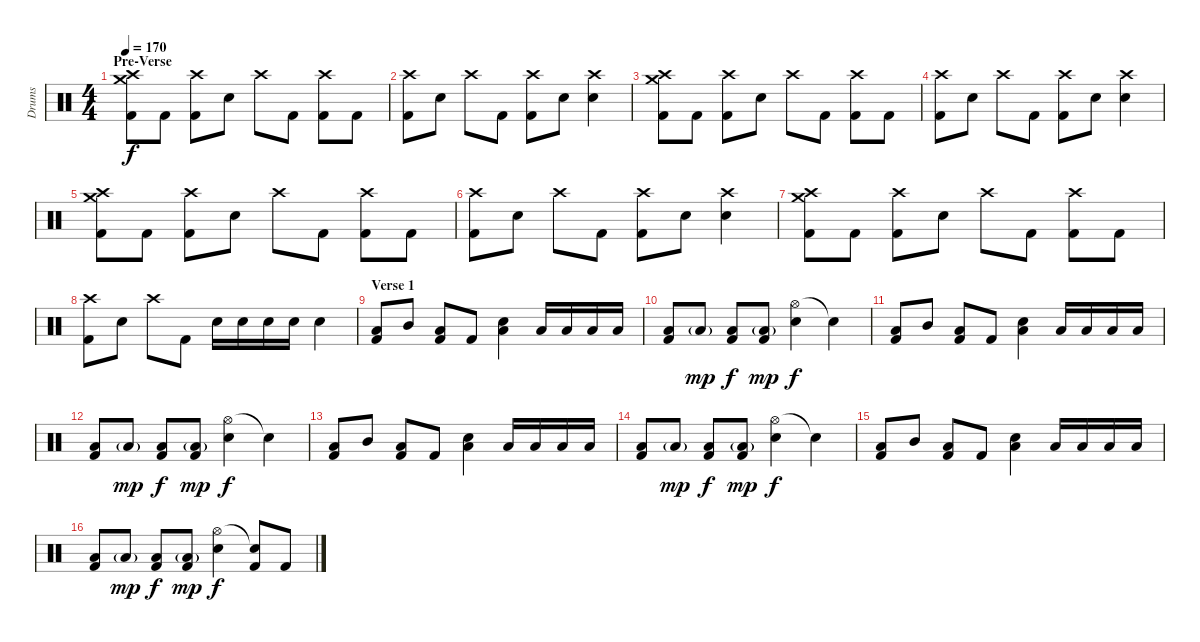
\track ("Drums" "Drums") {instrument percussion}
\staff {score}
\articulation defaults
\ts (4 4)
\section ("" "Pre-Verse")
\tempo 170
\clef neutral
\ks c
("Crash medium (hit)" "Crash high (hit)" "Kick (hit) 2").8{dy f} "Kick (hit) 2".8 ("Crash high (hit)" "Kick (hit) 2").8 "Snare (hit) 2".8 "Crash high (hit)".8 "Kick (hit) 2".8 ("Crash high (hit)" "Kick (hit) 2").8 "Kick (hit) 2".8 |
("Crash high (hit)" "Kick (hit) 2").8 "Snare (hit) 2".8 "Crash high (hit)".8 "Kick (hit) 2".8 ("Crash high (hit)" "Kick (hit) 2").8 "Snare (hit) 2".8 ("Crash high (hit)" "Snare (hit) 2").4 |
("Crash medium (hit)" "Crash high (hit)" "Kick (hit) 2").8 "Kick (hit) 2".8 ("Crash high (hit)" "Kick (hit) 2").8 "Snare (hit) 2".8 "Crash high (hit)".8 "Kick (hit) 2".8 ("Crash high (hit)" "Kick (hit) 2").8 "Kick (hit) 2".8 |
("Crash high (hit)" "Kick (hit) 2").8 "Snare (hit) 2".8 "Crash high (hit)".8 "Kick (hit) 2".8 ("Crash high (hit)" "Kick (hit) 2").8 "Snare (hit) 2".8 ("Crash high (hit)" "Snare (hit) 2").4 |
("Crash medium (hit)" "Crash high (hit)" "Kick (hit) 2").8 "Kick (hit) 2".8 ("Crash high (hit)" "Kick (hit) 2").8 "Snare (hit) 2".8 "Crash high (hit)".8 "Kick (hit) 2".8 ("Crash high (hit)" "Kick (hit) 2").8 "Kick (hit) 2".8 |
("Crash high (hit)" "Kick (hit) 2").8 "Snare (hit) 2".8 "Crash high (hit)".8 "Kick (hit) 2".8 ("Crash high (hit)" "Kick (hit) 2").8 "Snare (hit) 2".8 ("Crash high (hit)" "Snare (hit) 2").4 |
("Crash medium (hit)" "Crash high (hit)" "Kick (hit) 2").8 "Kick (hit) 2".8 ("Crash high (hit)" "Kick (hit) 2").8 "Snare (hit) 2".8 "Crash high (hit)".8 "Kick (hit) 2".8 ("Crash high (hit)" "Kick (hit) 2").8 "Kick (hit) 2".8 |
("Crash high (hit)" "Kick (hit) 2").8 "Snare (hit) 2".8 "Crash high (hit)".8 "Kick (hit) 2".8 "Snare (hit) 2".16 "Snare (hit) 2".16 "Snare (hit) 2".16 "Snare (hit) 2".16 "Snare (hit) 2".4 |
\section ("" "Verse 1")
("Low Floor Tom (hit)" "Kick (hit) 2").8 "Mid Tom (hit)".8 ("Low Floor Tom (hit)" "Kick (hit) 2").8 "Kick (hit) 2".8 ("Low Floor Tom (hit)" "Snare (hit) 2").4 "Low Floor Tom (hit)".16 "Low Floor Tom (hit)".16 "Low Floor Tom (hit)".16 "Low Floor Tom (hit)".16 |
("Low Floor Tom (hit)" "Kick (hit) 2").8 "Low Floor Tom (hit)"{g}.8{dy mp} ("Low Floor Tom (hit)" "Kick (hit) 2").8{dy f} ("Low Floor Tom (hit)"{g} "Kick (hit) 2").8{dy mp} ("Hi-Hat (open)" "Snare (hit) 2").4{dy f} "Snare (hit)"{t}.4 |
("Low Floor Tom (hit)" "Kick (hit) 2").8 "Mid Tom (hit)".8 ("Low Floor Tom (hit)" "Kick (hit) 2").8 "Kick (hit) 2".8 ("Low Floor Tom (hit)" "Snare (hit) 2").4 "Low Floor Tom (hit)".16 "Low Floor Tom (hit)".16 "Low Floor Tom (hit)".16 "Low Floor Tom (hit)".16 |
("Low Floor Tom (hit)" "Kick (hit) 2").8 "Low Floor Tom (hit)"{g}.8{dy mp} ("Low Floor Tom (hit)" "Kick (hit) 2").8{dy f} ("Low Floor Tom (hit)"{g} "Kick (hit) 2").8{dy mp} ("Hi-Hat (open)" "Snare (hit) 2").4{dy f} "Snare (hit)"{t}.4 |
("Low Floor Tom (hit)" "Kick (hit) 2").8 "Mid Tom (hit)".8 ("Low Floor Tom (hit)" "Kick (hit) 2").8 "Kick (hit) 2".8 ("Low Floor Tom (hit)" "Snare (hit) 2").4 "Low Floor Tom (hit)".16 "Low Floor Tom (hit)".16 "Low Floor Tom (hit)".16 "Low Floor Tom (hit)".16 |
("Low Floor Tom (hit)" "Kick (hit) 2").8 "Low Floor Tom (hit)"{g}.8{dy mp} ("Low Floor Tom (hit)" "Kick (hit) 2").8{dy f} ("Low Floor Tom (hit)"{g} "Kick (hit) 2").8{dy mp} ("Hi-Hat (open)" "Snare (hit) 2").4{dy f} "Snare (hit)"{t}.4 |
("Low Floor Tom (hit)" "Kick (hit) 2").8 "Mid Tom (hit)".8 ("Low Floor Tom (hit)" "Kick (hit) 2").8 "Kick (hit) 2".8 ("Low Floor Tom (hit)" "Snare (hit) 2").4 "Low Floor Tom (hit)".16 "Low Floor Tom (hit)".16 "Low Floor Tom (hit)".16 "Low Floor Tom (hit)".16 |
("Low Floor Tom (hit)" "Kick (hit) 2").8 "Low Floor Tom (hit)"{g}.8{dy mp} ("Low Floor Tom (hit)" "Kick (hit) 2").8{dy f} ("Low Floor Tom (hit)"{g} "Kick (hit) 2").8{dy mp} ("Hi-Hat (open)" "Snare (hit) 2").4{dy f} ("Snare (hit)"{t} "Kick (hit) 2").8 "Kick (hit) 2".8
